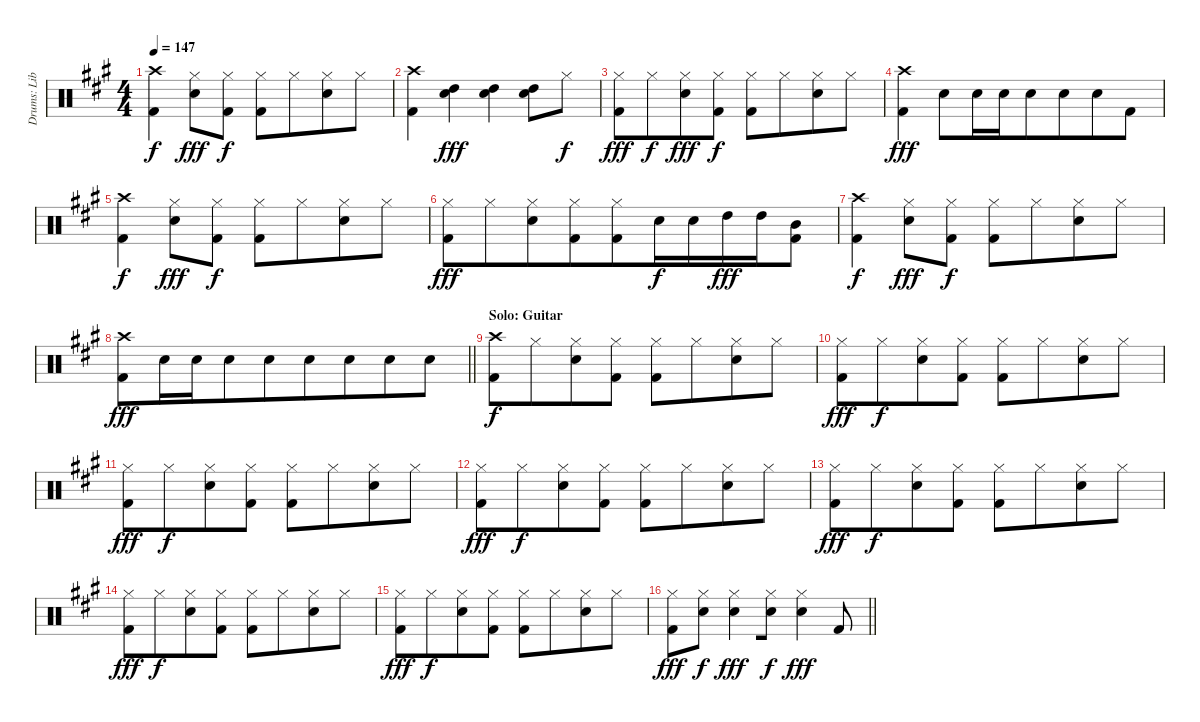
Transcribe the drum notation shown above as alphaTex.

\track ("Drums: Liberty" "Drums: Lib") {instrument percussion}
\staff {score}
\articulation defaults
\ts (4 4)
\tempo 147
\clef neutral
\ks a
("Crash high (hit)" "Kick (hit) 2").4{dy f} ("Hi-Hat (closed)" "Electric Snare (hit)").8{dy fff} ("Hi-Hat (closed)" "Kick (hit) 2").8{dy f} ("Hi-Hat (closed)" "Kick (hit) 2").8 "Hi-Hat (closed)".8{beam merge} ("Hi-Hat (closed)" "Electric Snare (hit)").8 "Hi-Hat (closed)".8 |
("Crash high (hit)" "Kick (hit) 2").4 ("Electric Snare (hit)" "High Tom (hit)").4{dy fff} ("Electric Snare (hit)" "High Tom (hit)").4 ("Electric Snare (hit)" "High Tom (hit)").8 "Hi-Hat (closed)".8{dy f} |
("Hi-Hat (closed)" "Kick (hit) 2").8{dy fff} "Hi-Hat (closed)".8{dy f beam merge} ("Hi-Hat (closed)" "Electric Snare (hit)").8{dy fff} ("Hi-Hat (closed)" "Kick (hit) 2").8{dy f} ("Hi-Hat (closed)" "Kick (hit) 2").8 "Hi-Hat (closed)".8{beam merge} ("Hi-Hat (closed)" "Electric Snare (hit)").8 "Hi-Hat (closed)".8 |
("Crash high (hit)" "Kick (hit) 2").4{dy fff beam merge} "Electric Snare (hit)".8{beam merge} "Electric Snare (hit)".16{beam merge} "Electric Snare (hit)".16{beam merge} "Electric Snare (hit)".8{beam merge} "Electric Snare (hit)".8{beam merge} "Electric Snare (hit)".8 "Kick (hit) 2".8 |
("Crash high (hit)" "Kick (hit) 2").4{dy f} ("Hi-Hat (closed)" "Electric Snare (hit)").8{dy fff} ("Hi-Hat (closed)" "Kick (hit) 2").8{dy f} ("Hi-Hat (closed)" "Kick (hit) 2").8 "Hi-Hat (closed)".8{beam merge} ("Hi-Hat (closed)" "Electric Snare (hit)").8 "Hi-Hat (closed)".8 |
("Hi-Hat (closed)" "Kick (hit) 2").8{dy fff} "Hi-Hat (closed)".8{beam merge} ("Hi-Hat (closed)" "Electric Snare (hit)").8 ("Hi-Hat (closed)" "Kick (hit) 2").8{beam merge} ("Hi-Hat (closed)" "Kick (hit) 2").8{beam merge} "Electric Snare (hit)".16{dy f beam merge} "Electric Snare (hit)".16{beam merge} "High Tom (hit)".16{dy fff beam merge} "High Tom (hit)".16{beam merge} ("Mid Tom (hit)" "Kick (hit) 2").8 |
("Crash high (hit)" "Kick (hit) 2").4{dy f} ("Hi-Hat (closed)" "Electric Snare (hit)").8{dy fff} ("Hi-Hat (closed)" "Kick (hit) 2").8{dy f} ("Hi-Hat (closed)" "Kick (hit) 2").8 "Hi-Hat (closed)".8{beam merge} ("Hi-Hat (closed)" "Electric Snare (hit)").8 "Hi-Hat (closed)".8 |
\barLineRight lightlight
("Crash high (hit)" "Kick (hit) 2").8{dy fff beam merge} "Electric Snare (hit)".16{beam merge} "Electric Snare (hit)".16{beam merge} "Electric Snare (hit)".8{beam merge} "Electric Snare (hit)".8{beam merge} "Electric Snare (hit)".8{beam merge} "Electric Snare (hit)".8{beam merge} "Electric Snare (hit)".8{beam merge} "Electric Snare (hit)".8 |
\section ("" "Solo: Guitar")
("Crash high (hit)" "Kick (hit) 2").8{dy f} "Hi-Hat (closed)".8{beam merge} ("Hi-Hat (closed)" "Electric Snare (hit)").8 ("Hi-Hat (closed)" "Kick (hit) 2").8 ("Hi-Hat (closed)" "Kick (hit) 2").8 "Hi-Hat (closed)".8{beam merge} ("Hi-Hat (closed)" "Electric Snare (hit)").8 "Hi-Hat (closed)".8 |
("Hi-Hat (closed)" "Kick (hit) 2").8{dy fff} "Hi-Hat (closed)".8{dy f beam merge} ("Hi-Hat (closed)" "Electric Snare (hit)").8 ("Hi-Hat (closed)" "Kick (hit) 2").8 ("Hi-Hat (closed)" "Kick (hit) 2").8 "Hi-Hat (closed)".8{beam merge} ("Hi-Hat (closed)" "Electric Snare (hit)").8 "Hi-Hat (closed)".8 |
("Hi-Hat (closed)" "Kick (hit) 2").8{dy fff} "Hi-Hat (closed)".8{dy f beam merge} ("Hi-Hat (closed)" "Electric Snare (hit)").8 ("Hi-Hat (closed)" "Kick (hit) 2").8 ("Hi-Hat (closed)" "Kick (hit) 2").8 "Hi-Hat (closed)".8{beam merge} ("Hi-Hat (closed)" "Electric Snare (hit)").8 "Hi-Hat (closed)".8 |
("Hi-Hat (closed)" "Kick (hit) 2").8{dy fff} "Hi-Hat (closed)".8{dy f beam merge} ("Hi-Hat (closed)" "Electric Snare (hit)").8 ("Hi-Hat (closed)" "Kick (hit) 2").8 ("Hi-Hat (closed)" "Kick (hit) 2").8 "Hi-Hat (closed)".8{beam merge} ("Hi-Hat (closed)" "Electric Snare (hit)").8 "Hi-Hat (closed)".8 |
("Hi-Hat (closed)" "Kick (hit) 2").8{dy fff} "Hi-Hat (closed)".8{dy f beam merge} ("Hi-Hat (closed)" "Electric Snare (hit)").8 ("Hi-Hat (closed)" "Kick (hit) 2").8 ("Hi-Hat (closed)" "Kick (hit) 2").8 "Hi-Hat (closed)".8{beam merge} ("Hi-Hat (closed)" "Electric Snare (hit)").8 "Hi-Hat (closed)".8 |
("Hi-Hat (closed)" "Kick (hit) 2").8{dy fff} "Hi-Hat (closed)".8{dy f beam merge} ("Hi-Hat (closed)" "Electric Snare (hit)").8 ("Hi-Hat (closed)" "Kick (hit) 2").8 ("Hi-Hat (closed)" "Kick (hit) 2").8 "Hi-Hat (closed)".8{beam merge} ("Hi-Hat (closed)" "Electric Snare (hit)").8 "Hi-Hat (closed)".8 |
("Hi-Hat (closed)" "Kick (hit) 2").8{dy fff} "Hi-Hat (closed)".8{dy f beam merge} ("Hi-Hat (closed)" "Electric Snare (hit)").8 ("Hi-Hat (closed)" "Kick (hit) 2").8 ("Hi-Hat (closed)" "Kick (hit) 2").8 "Hi-Hat (closed)".8{beam merge} ("Hi-Hat (closed)" "Electric Snare (hit)").8 "Hi-Hat (closed)".8 |
\barLineRight lightlight
("Hi-Hat (closed)" "Kick (hit) 2").8{dy fff beam merge} ("Hi-Hat (closed)" "Electric Snare (hit)").8{dy f} ("Hi-Hat (closed)" "Electric Snare (hit)").4{dy fff beam merge} ("Hi-Hat (closed)" "Electric Snare (hit)").8{dy f} ("Hi-Hat (closed)" "Electric Snare (hit)").4{dy fff} "Kick (hit) 2".8
